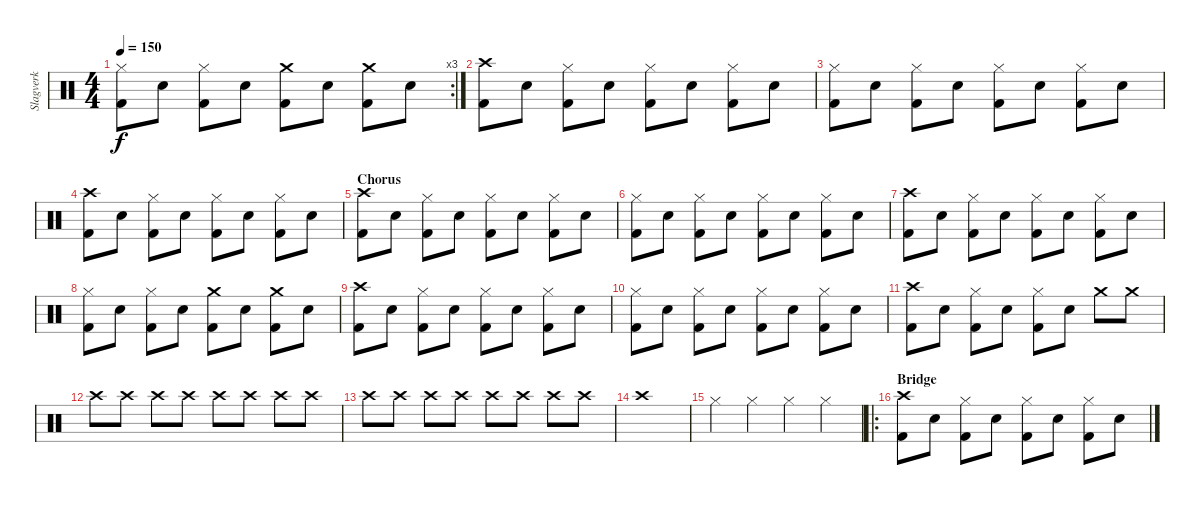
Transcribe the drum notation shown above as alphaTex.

\track ("Slagverk" "Slagverk") {instrument percussion}
\staff {score}
\articulation defaults
\rc 3
\ts (4 4)
\tempo 150
\clef neutral
\ks c
("Hi-Hat (closed)" "Kick (hit) 2").8{dy f} "Electric Snare (hit)".8 ("Hi-Hat (closed)" "Kick (hit) 2").8 "Electric Snare (hit)".8 ("Crash medium (hit)" "Kick (hit) 2").8 "Electric Snare (hit)".8 ("Crash medium (hit)" "Kick (hit) 2").8 "Electric Snare (hit)".8 |
("Crash high (hit)" "Kick (hit) 2").8 "Electric Snare (hit)".8 ("Hi-Hat (closed)" "Kick (hit) 2").8 "Electric Snare (hit)".8 ("Hi-Hat (closed)" "Kick (hit) 2").8 "Electric Snare (hit)".8 ("Hi-Hat (closed)" "Kick (hit) 2").8 "Electric Snare (hit)".8 |
("Hi-Hat (closed)" "Kick (hit) 2").8 "Electric Snare (hit)".8 ("Hi-Hat (closed)" "Kick (hit) 2").8 "Electric Snare (hit)".8 ("Hi-Hat (closed)" "Kick (hit) 2").8 "Electric Snare (hit)".8 ("Hi-Hat (closed)" "Kick (hit) 2").8 "Electric Snare (hit)".8 |
("Crash high (hit)" "Kick (hit) 2").8 "Electric Snare (hit)".8 ("Hi-Hat (closed)" "Kick (hit) 2").8 "Electric Snare (hit)".8 ("Hi-Hat (closed)" "Kick (hit) 2").8 "Electric Snare (hit)".8 ("Hi-Hat (closed)" "Kick (hit) 2").8 "Electric Snare (hit)".8 |
\section ("" "Chorus")
("Crash high (hit)" "Kick (hit) 2").8 "Electric Snare (hit)".8 ("Hi-Hat (closed)" "Kick (hit) 2").8 "Electric Snare (hit)".8 ("Hi-Hat (closed)" "Kick (hit) 2").8 "Electric Snare (hit)".8 ("Hi-Hat (closed)" "Kick (hit) 2").8 "Electric Snare (hit)".8 |
("Hi-Hat (closed)" "Kick (hit) 2").8 "Electric Snare (hit)".8 ("Hi-Hat (closed)" "Kick (hit) 2").8 "Electric Snare (hit)".8 ("Hi-Hat (closed)" "Kick (hit) 2").8 "Electric Snare (hit)".8 ("Hi-Hat (closed)" "Kick (hit) 2").8 "Electric Snare (hit)".8 |
("Crash high (hit)" "Kick (hit) 2").8 "Electric Snare (hit)".8 ("Hi-Hat (closed)" "Kick (hit) 2").8 "Electric Snare (hit)".8 ("Hi-Hat (closed)" "Kick (hit) 2").8 "Electric Snare (hit)".8 ("Hi-Hat (closed)" "Kick (hit) 2").8 "Electric Snare (hit)".8 |
("Hi-Hat (closed)" "Kick (hit) 2").8 "Electric Snare (hit)".8 ("Hi-Hat (closed)" "Kick (hit) 2").8 "Electric Snare (hit)".8 ("Crash medium (hit)" "Kick (hit) 2").8 "Electric Snare (hit)".8 ("Crash medium (hit)" "Kick (hit) 2").8 "Electric Snare (hit)".8 |
("Crash high (hit)" "Kick (hit) 2").8 "Electric Snare (hit)".8 ("Hi-Hat (closed)" "Kick (hit) 2").8 "Electric Snare (hit)".8 ("Hi-Hat (closed)" "Kick (hit) 2").8 "Electric Snare (hit)".8 ("Hi-Hat (closed)" "Kick (hit) 2").8 "Electric Snare (hit)".8 |
("Hi-Hat (closed)" "Kick (hit) 2").8 "Electric Snare (hit)".8 ("Hi-Hat (closed)" "Kick (hit) 2").8 "Electric Snare (hit)".8 ("Hi-Hat (closed)" "Kick (hit) 2").8 "Electric Snare (hit)".8 ("Hi-Hat (closed)" "Kick (hit) 2").8 "Electric Snare (hit)".8 |
("Crash high (hit)" "Kick (hit) 2").8 "Electric Snare (hit)".8 ("Hi-Hat (closed)" "Kick (hit) 2").8 "Electric Snare (hit)".8 ("Hi-Hat (closed)" "Kick (hit) 2").8 "Electric Snare (hit)".8 "Crash medium (hit)".8 "Crash medium (hit)".8 |
"Crash high (hit)".8 "Crash high (hit)".8 "Crash high (hit)".8 "Crash high (hit)".8 "Crash high (hit)".8 "Crash high (hit)".8 "Crash high (hit)".8 "Crash high (hit)".8 |
"Crash high (hit)".8 "Crash high (hit)".8 "Crash high (hit)".8 "Crash high (hit)".8 "Crash high (hit)".8 "Crash high (hit)".8 "Crash high (hit)".8 "Crash high (hit)".8 |
"Crash high (hit)".1 |
"Hi-Hat (closed)".4 "Hi-Hat (closed)".4 "Hi-Hat (closed)".4 "Hi-Hat (closed)".4 |
\ro
\section ("" "Bridge")
("Crash high (hit)" "Kick (hit) 2").8 "Electric Snare (hit)".8 ("Hi-Hat (closed)" "Kick (hit) 2").8 "Electric Snare (hit)".8 ("Hi-Hat (closed)" "Kick (hit) 2").8 "Electric Snare (hit)".8 ("Hi-Hat (closed)" "Kick (hit) 2").8 "Electric Snare (hit)".8
